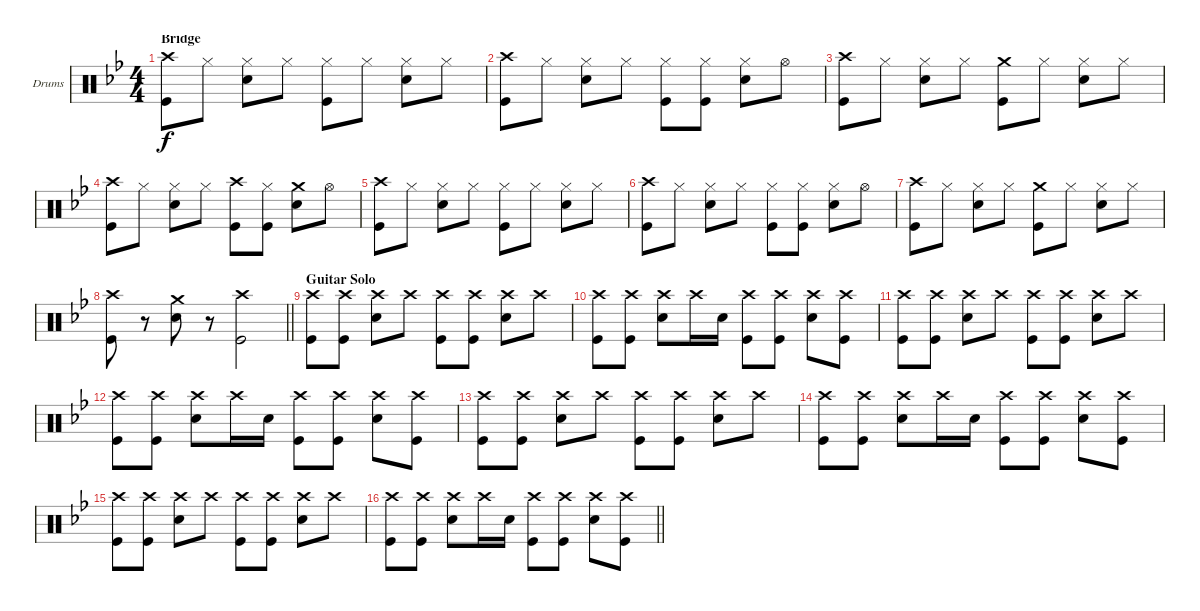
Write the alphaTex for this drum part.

\bracketExtendMode groupsimilarinstruments
\firstSystemTrackNameOrientation horizontal
\otherSystemsTrackNameOrientation horizontal
\track ("Drumkit" "Drums") {instrument percussion}
\staff {score}
\articulation defaults
\ts (4 4)
\section ("" "Bridge")
\tempo (82 hide)
\clef neutral
\ks gminor
("Crash high (hit)" "Kick (hit)").8{dy f} "Hi-Hat (closed)".8 ("Hi-Hat (closed)" "Snare (hit) 2").8 "Hi-Hat (closed)".8 ("Hi-Hat (closed)" "Kick (hit)").8 "Hi-Hat (closed)".8 ("Hi-Hat (closed)" "Snare (hit) 2").8 "Hi-Hat (closed)".8 |
("Crash high (hit)" "Kick (hit)").8 "Hi-Hat (closed)".8 ("Hi-Hat (closed)" "Snare (hit) 2").8 "Hi-Hat (closed)".8 ("Hi-Hat (closed)" "Kick (hit)").8 ("Hi-Hat (closed)" "Kick (hit)").8 ("Hi-Hat (closed)" "Snare (hit) 2").8 "Hi-Hat (open)".8 |
("Crash high (hit)" "Kick (hit)").8 "Hi-Hat (closed)".8 ("Hi-Hat (closed)" "Snare (hit) 2").8 "Hi-Hat (closed)".8 ("Crash medium (hit)" "Kick (hit)").8 "Hi-Hat (closed)".8 ("Hi-Hat (closed)" "Snare (hit) 2").8 "Hi-Hat (closed)".8 |
("Crash high (hit)" "Kick (hit)").8 "Hi-Hat (closed)".8 ("Hi-Hat (closed)" "Snare (hit) 2").8 "Hi-Hat (closed)".8 ("Crash high (hit)" "Kick (hit)").8 ("Hi-Hat (closed)" "Kick (hit)").8 ("Crash medium (hit)" "Snare (hit) 2").8 "Hi-Hat (open)".8 |
("Crash high (hit)" "Kick (hit)").8 "Hi-Hat (closed)".8 ("Hi-Hat (closed)" "Snare (hit) 2").8 "Hi-Hat (closed)".8 ("Hi-Hat (closed)" "Kick (hit)").8 "Hi-Hat (closed)".8 ("Hi-Hat (closed)" "Snare (hit) 2").8 "Hi-Hat (closed)".8 |
("Crash high (hit)" "Kick (hit)").8 "Hi-Hat (closed)".8 ("Hi-Hat (closed)" "Snare (hit) 2").8 "Hi-Hat (closed)".8 ("Hi-Hat (closed)" "Kick (hit)").8 ("Hi-Hat (closed)" "Kick (hit)").8 ("Hi-Hat (closed)" "Snare (hit) 2").8 "Hi-Hat (open)".8 |
("Crash high (hit)" "Kick (hit)").8 "Hi-Hat (closed)".8 ("Hi-Hat (closed)" "Snare (hit) 2").8 "Hi-Hat (closed)".8 ("Crash medium (hit)" "Kick (hit)").8 "Hi-Hat (closed)".8 ("Hi-Hat (closed)" "Snare (hit) 2").8 "Hi-Hat (closed)".8 |
\barLineRight lightlight
("Crash high (hit)" "Kick (hit)").8 r.8 ("Crash medium (hit)" "Snare (hit) 2").8 r.8 ("Crash high (hit)" "Kick (hit)").2 |
\section ("" "Guitar Solo")
\tempo (86 hide)
("Crash high (hit)" "Kick (hit)").8 ("Crash high (hit)" "Kick (hit)").8 ("Crash high (hit)" "Snare (hit) 2").8 "Crash high (hit)".8 ("Crash high (hit)" "Kick (hit)").8 ("Crash high (hit)" "Kick (hit)").8 ("Crash high (hit)" "Snare (hit) 2").8 "Crash high (hit)".8 |
("Crash high (hit)" "Kick (hit)").8 ("Crash high (hit)" "Kick (hit)").8 ("Crash high (hit)" "Snare (hit) 2").8 "Crash high (hit)".16 "Snare (hit) 2".16 ("Crash high (hit)" "Kick (hit)").8 ("Crash high (hit)" "Kick (hit)").8 ("Crash high (hit)" "Snare (hit) 2").8 ("Crash high (hit)" "Kick (hit)").8 |
("Crash high (hit)" "Kick (hit)").8 ("Crash high (hit)" "Kick (hit)").8 ("Crash high (hit)" "Snare (hit) 2").8 "Crash high (hit)".8 ("Crash high (hit)" "Kick (hit)").8 ("Crash high (hit)" "Kick (hit)").8 ("Crash high (hit)" "Snare (hit) 2").8 "Crash high (hit)".8 |
("Crash high (hit)" "Kick (hit)").8 ("Crash high (hit)" "Kick (hit)").8 ("Crash high (hit)" "Snare (hit) 2").8 "Crash high (hit)".16 "Snare (hit) 2".16 ("Crash high (hit)" "Kick (hit)").8 ("Crash high (hit)" "Kick (hit)").8 ("Crash high (hit)" "Snare (hit) 2").8 ("Crash high (hit)" "Kick (hit)").8 |
("Crash high (hit)" "Kick (hit)").8 ("Crash high (hit)" "Kick (hit)").8 ("Crash high (hit)" "Snare (hit) 2").8 "Crash high (hit)".8 ("Crash high (hit)" "Kick (hit)").8 ("Crash high (hit)" "Kick (hit)").8 ("Crash high (hit)" "Snare (hit) 2").8 "Crash high (hit)".8 |
("Crash high (hit)" "Kick (hit)").8 ("Crash high (hit)" "Kick (hit)").8 ("Crash high (hit)" "Snare (hit) 2").8 "Crash high (hit)".16 "Snare (hit) 2".16 ("Crash high (hit)" "Kick (hit)").8 ("Crash high (hit)" "Kick (hit)").8 ("Crash high (hit)" "Snare (hit) 2").8 ("Crash high (hit)" "Kick (hit)").8 |
("Crash high (hit)" "Kick (hit)").8 ("Crash high (hit)" "Kick (hit)").8 ("Crash high (hit)" "Snare (hit) 2").8 "Crash high (hit)".8 ("Crash high (hit)" "Kick (hit)").8 ("Crash high (hit)" "Kick (hit)").8 ("Crash high (hit)" "Snare (hit) 2").8 "Crash high (hit)".8 |
\barLineRight lightlight
("Crash high (hit)" "Kick (hit)").8 ("Crash high (hit)" "Kick (hit)").8 ("Crash high (hit)" "Snare (hit) 2").8 "Crash high (hit)".16 "Snare (hit) 2".16 ("Crash high (hit)" "Kick (hit)").8 ("Crash high (hit)" "Kick (hit)").8 ("Crash high (hit)" "Snare (hit) 2").8 ("Crash high (hit)" "Kick (hit)").8
